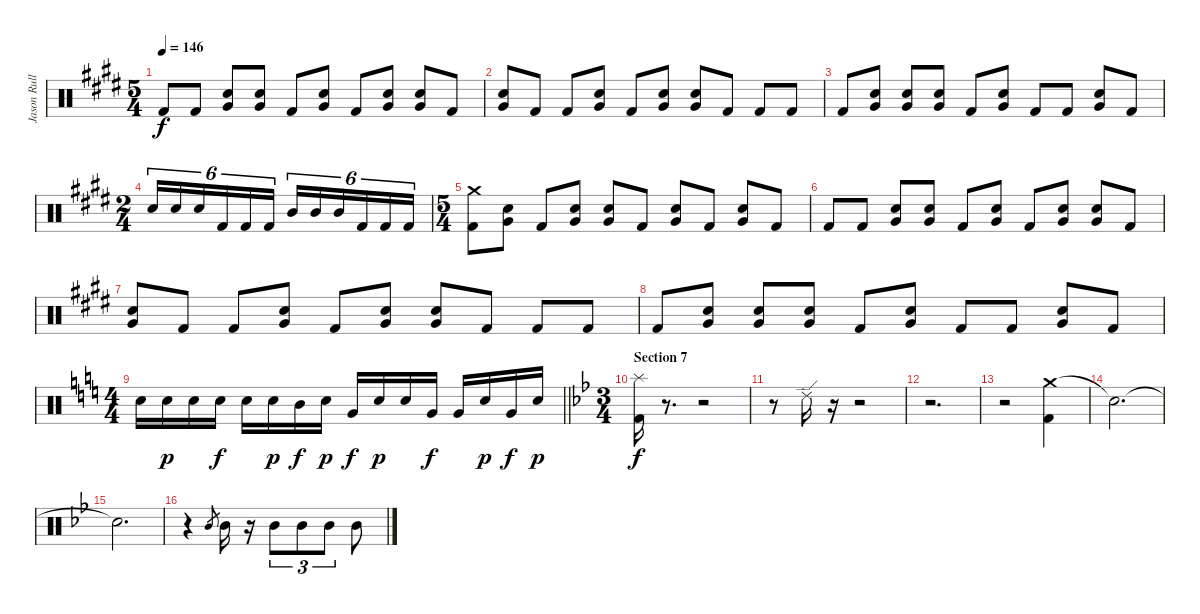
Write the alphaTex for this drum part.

\track ("Jason Rullo (drums)" "Jason Rull") {instrument percussion}
\staff {score}
\articulation defaults
\ts (5 4)
\tempo 146
\clef neutral
\ks c#minor "Kick (hit) 2".8{dy f} "Kick (hit) 2".8
("Very Low Tom (hit)" "Electric Snare (hit)").8 ("Very Low Tom (hit)" "Electric Snare (hit)").8 "Kick (hit) 2".8 ("Very Low Tom (hit)" "Electric Snare (hit)").8 "Kick (hit) 2".8 ("Very Low Tom (hit)" "Electric Snare (hit)").8 ("Very Low Tom (hit)" "Electric Snare (hit)").8 "Kick (hit) 2".8 |
("Very Low Tom (hit)" "Electric Snare (hit)").8 "Kick (hit) 2".8 "Kick (hit) 2".8 ("Very Low Tom (hit)" "Electric Snare (hit)").8 "Kick (hit) 2".8 ("Very Low Tom (hit)" "Electric Snare (hit)").8 ("Very Low Tom (hit)" "Electric Snare (hit)").8 "Kick (hit) 2".8 "Kick (hit) 2".8 "Kick (hit) 2".8 |
"Kick (hit) 2".8 ("Very Low Tom (hit)" "Electric Snare (hit)").8 ("Very Low Tom (hit)" "Electric Snare (hit)").8 ("Very Low Tom (hit)" "Electric Snare (hit)").8 "Kick (hit) 2".8 ("Very Low Tom (hit)" "Electric Snare (hit)").8 "Kick (hit) 2".8 "Kick (hit) 2".8 ("Very Low Tom (hit)" "Electric Snare (hit)").8 "Kick (hit) 2".8 |
\ts (2 4)
"Electric Snare (hit)".16{tu (6 4)} "Electric Snare (hit)".16{tu (6 4)} "Electric Snare (hit)".16{tu (6 4)} "Kick (hit) 2".16{tu (6 4)} "Kick (hit) 2".16{tu (6 4)} "Kick (hit) 2".16{tu (6 4)} "Mid Tom (hit)".16{tu (6 4)} "Mid Tom (hit)".16{tu (6 4)} "Mid Tom (hit)".16{tu (6 4)} "Kick (hit) 2".16{tu (6 4)} "Kick (hit) 2".16{tu (6 4)} "Kick (hit) 2".16{tu (6 4)} |
\ts (5 4)
("Crash medium (hit)" "Kick (hit) 2").8 ("Very Low Tom (hit)" "Electric Snare (hit)").8 "Kick (hit) 2".8 ("Very Low Tom (hit)" "Electric Snare (hit)").8 ("Very Low Tom (hit)" "Electric Snare (hit)").8 "Kick (hit) 2".8 ("Very Low Tom (hit)" "Electric Snare (hit)").8 "Kick (hit) 2".8 ("Very Low Tom (hit)" "Electric Snare (hit)").8 "Kick (hit) 2".8 |
"Kick (hit) 2".8 "Kick (hit) 2".8 ("Very Low Tom (hit)" "Electric Snare (hit)").8 ("Very Low Tom (hit)" "Electric Snare (hit)").8 "Kick (hit) 2".8 ("Very Low Tom (hit)" "Electric Snare (hit)").8 "Kick (hit) 2".8 ("Very Low Tom (hit)" "Electric Snare (hit)").8 ("Very Low Tom (hit)" "Electric Snare (hit)").8 "Kick (hit) 2".8 |
("Very Low Tom (hit)" "Electric Snare (hit)").8 "Kick (hit) 2".8 "Kick (hit) 2".8 ("Very Low Tom (hit)" "Electric Snare (hit)").8 "Kick (hit) 2".8 ("Very Low Tom (hit)" "Electric Snare (hit)").8 ("Very Low Tom (hit)" "Electric Snare (hit)").8 "Kick (hit) 2".8 "Kick (hit) 2".8 "Kick (hit) 2".8 |
"Kick (hit) 2".8 ("Very Low Tom (hit)" "Electric Snare (hit)").8 ("Very Low Tom (hit)" "Electric Snare (hit)").8 ("Very Low Tom (hit)" "Electric Snare (hit)").8 "Kick (hit) 2".8 ("Very Low Tom (hit)" "Electric Snare (hit)").8 "Kick (hit) 2".8 "Kick (hit) 2".8 ("Very Low Tom (hit)" "Electric Snare (hit)").8 "Kick (hit) 2".8 |
\ts (4 4)
\barLineRight lightlight
\ks aminor "Electric Snare (hit)".16 "Electric Snare (hit)".16{dy p} "Electric Snare (hit)".16 "Electric Snare (hit)".16{dy f} "Electric Snare (hit)".16 "Electric Snare (hit)".16{dy p} "Mid Tom (hit)".16{dy f} "Electric Snare (hit)".16{dy p} "Very Low Tom (hit)".16{dy f} "Electric Snare (hit)".16{dy p} "Electric Snare (hit)".16 "Very Low Tom (hit)".16{dy f} "Very Low Tom (hit)".16 "Electric Snare (hit)".16{dy p} "Very Low Tom (hit)".16{dy f} "Electric Snare (hit)".16{dy p}
|
\ts (3 4)
\section ("" "Section 7")
\ks gminor
("Splash (hit)" "Kick (hit) 2").16{dy f} r.8{d} r.2 |
r.8 "Ride (edge) 2".16 r.16 r.2 |
r.2{d} |
r.2 ("Crash medium (hit)" "Kick (hit) 2").4 |
"Snare (hit)"{t}.2{d} |
"Snare (hit)"{t}.2{d} |
r.4 "Mid Tom (hit)".8{gr} "Mid Tom (hit)".16 r.16 "Mid Tom (hit)".8{tu (3 2)} "Mid Tom (hit)".8{tu (3 2)} "Mid Tom (hit)".8{tu (3 2)} "Mid Tom (hit)".8
